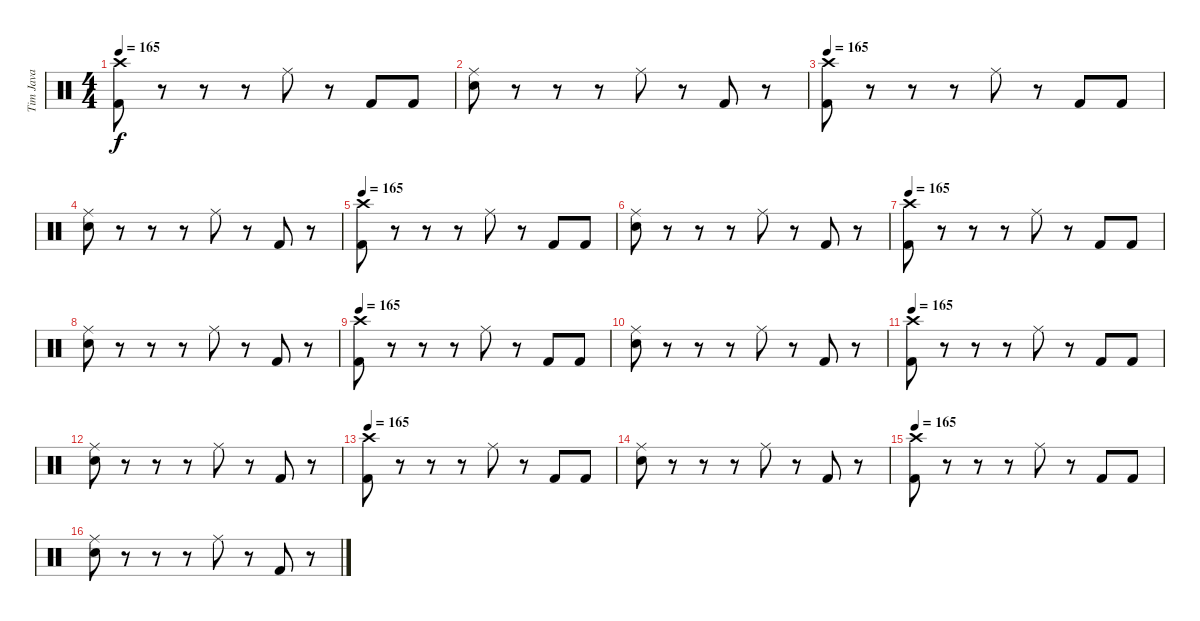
\track ("Tim Java" "Tim Java") {instrument percussion}
\staff {score}
\articulation defaults
\ts (4 4)
\tempo 165
\clef neutral
\ks c
("Crash high (hit)" "Kick (hit) 2").8{dy f} r.8 r.8 r.8 "Ride (middle)".8 r.8 "Kick (hit) 2".8 "Kick (hit) 2".8 |
("Ride (middle)" "Electric Snare (hit)").8 r.8 r.8 r.8 "Ride (middle)".8 r.8 "Kick (hit) 2".8 r.8 |
\tempo 165
("Crash high (hit)" "Kick (hit) 2").8 r.8 r.8 r.8 "Ride (middle)".8 r.8 "Kick (hit) 2".8 "Kick (hit) 2".8 |
("Ride (middle)" "Electric Snare (hit)").8 r.8 r.8 r.8 "Ride (middle)".8 r.8 "Kick (hit) 2".8 r.8 |
\tempo 165
("Crash high (hit)" "Kick (hit) 2").8 r.8 r.8 r.8 "Ride (middle)".8 r.8 "Kick (hit) 2".8 "Kick (hit) 2".8 |
("Ride (middle)" "Electric Snare (hit)").8 r.8 r.8 r.8 "Ride (middle)".8 r.8 "Kick (hit) 2".8 r.8 |
\tempo 165
("Crash high (hit)" "Kick (hit) 2").8 r.8 r.8 r.8 "Ride (middle)".8 r.8 "Kick (hit) 2".8 "Kick (hit) 2".8 |
("Ride (middle)" "Electric Snare (hit)").8 r.8 r.8 r.8 "Ride (middle)".8 r.8 "Kick (hit) 2".8 r.8 |
\tempo 165
("Crash high (hit)" "Kick (hit) 2").8 r.8 r.8 r.8 "Ride (middle)".8 r.8 "Kick (hit) 2".8 "Kick (hit) 2".8 |
("Ride (middle)" "Electric Snare (hit)").8 r.8 r.8 r.8 "Ride (middle)".8 r.8 "Kick (hit) 2".8 r.8 |
\tempo 165
("Crash high (hit)" "Kick (hit) 2").8 r.8 r.8 r.8 "Ride (middle)".8 r.8 "Kick (hit) 2".8 "Kick (hit) 2".8 |
("Ride (middle)" "Electric Snare (hit)").8 r.8 r.8 r.8 "Ride (middle)".8 r.8 "Kick (hit) 2".8 r.8 |
\tempo 165
("Crash high (hit)" "Kick (hit) 2").8 r.8 r.8 r.8 "Ride (middle)".8 r.8 "Kick (hit) 2".8 "Kick (hit) 2".8 |
("Ride (middle)" "Electric Snare (hit)").8 r.8 r.8 r.8 "Ride (middle)".8 r.8 "Kick (hit) 2".8 r.8 |
\tempo 165
("Crash high (hit)" "Kick (hit) 2").8 r.8 r.8 r.8 "Ride (middle)".8 r.8 "Kick (hit) 2".8 "Kick (hit) 2".8 |
("Ride (middle)" "Electric Snare (hit)").8 r.8 r.8 r.8 "Ride (middle)".8 r.8 "Kick (hit) 2".8 r.8
